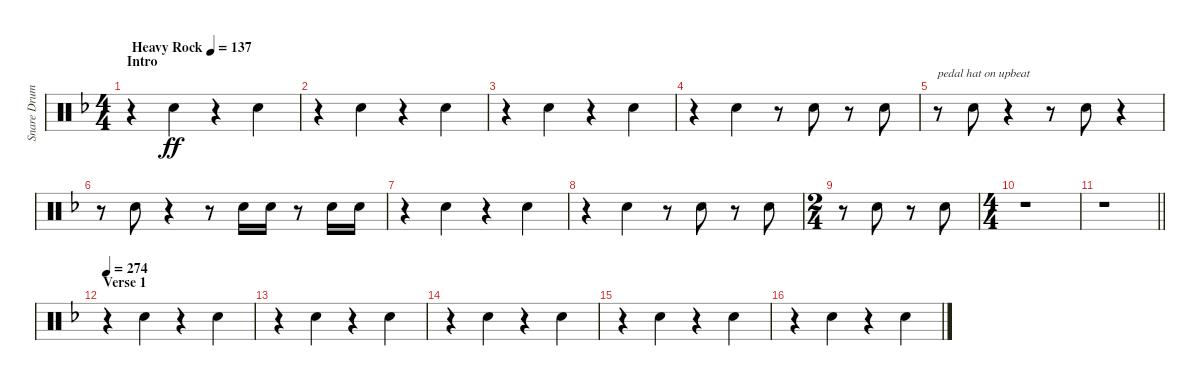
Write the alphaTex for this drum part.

\track ("Snare Drum" "Snare Drum") {instrument percussion}
\staff {score}
\articulation defaults
\ts (4 4)
\section ("" "Intro")
\tempo (137 "Heavy Rock")
\clef neutral
\ks dminor
r.4{dy ff} "Electric Snare (hit)".4 r.4 "Electric Snare (hit)".4 |
r.4 "Electric Snare (hit)".4 r.4 "Electric Snare (hit)".4 |
r.4 "Electric Snare (hit)".4 r.4 "Electric Snare (hit)".4 |
r.4 "Electric Snare (hit)".4 r.8 "Electric Snare (hit)".8 r.8 "Electric Snare (hit)".8 |
r.8{txt "pedal hat on upbeat"} "Electric Snare (hit)".8 r.4 r.8 "Electric Snare (hit)".8 r.4 |
r.8 "Electric Snare (hit)".8 r.4 r.8 "Electric Snare (hit)".16 "Electric Snare (hit)".16 r.8 "Electric Snare (hit)".16 "Electric Snare (hit)".16 |
r.4 "Electric Snare (hit)".4 r.4 "Electric Snare (hit)".4 |
r.4 "Electric Snare (hit)".4 r.8 "Electric Snare (hit)".8 r.8 "Electric Snare (hit)".8 |
\ts (2 4)
r.8 "Electric Snare (hit)".8 r.8 "Electric Snare (hit)".8 |
\ts (4 4)
r.1 |
\barLineRight lightlight
r.1 |
\section ("" "Verse 1")
\tempo 274
r.4 "Electric Snare (hit)".4 r.4 "Electric Snare (hit)".4 |
r.4 "Electric Snare (hit)".4 r.4 "Electric Snare (hit)".4 |
r.4 "Electric Snare (hit)".4 r.4 "Electric Snare (hit)".4 |
r.4 "Electric Snare (hit)".4 r.4 "Electric Snare (hit)".4 |
r.4 "Electric Snare (hit)".4 r.4 "Electric Snare (hit)".4
